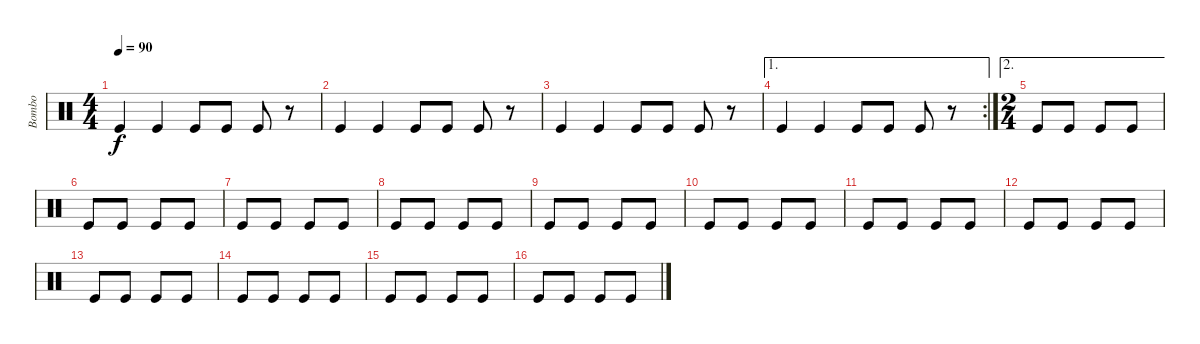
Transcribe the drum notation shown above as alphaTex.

\track ("Bombo" "Bombo") {instrument percussion}
\staff {score}
\articulation defaults
\ts (4 4)
\tempo 90
\clef neutral
\ks c "Kick (hit)".4{dy f} "Kick (hit)".4 "Kick (hit)".8 "Kick (hit)".8 "Kick (hit)".8
r.8 |
"Kick (hit)".4 "Kick (hit)".4 "Kick (hit)".8 "Kick (hit)".8 "Kick (hit)".8 r.8 |
"Kick (hit)".4 "Kick (hit)".4 "Kick (hit)".8 "Kick (hit)".8 "Kick (hit)".8 r.8 |
\ae 1
\rc 2 "Kick (hit)".4 "Kick (hit)".4 "Kick (hit)".8 "Kick (hit)".8 "Kick (hit)".8
r.8 |
\ae 2
\ts (2 4)
"Kick (hit)".8 "Kick (hit)".8 "Kick (hit)".8 "Kick (hit)".8 |
"Kick (hit)".8 "Kick (hit)".8 "Kick (hit)".8 "Kick (hit)".8 |
"Kick (hit)".8 "Kick (hit)".8 "Kick (hit)".8 "Kick (hit)".8 |
"Kick (hit)".8 "Kick (hit)".8 "Kick (hit)".8 "Kick (hit)".8 |
"Kick (hit)".8 "Kick (hit)".8 "Kick (hit)".8 "Kick (hit)".8 |
"Kick (hit)".8 "Kick (hit)".8 "Kick (hit)".8 "Kick (hit)".8 |
"Kick (hit)".8 "Kick (hit)".8 "Kick (hit)".8 "Kick (hit)".8 |
"Kick (hit)".8 "Kick (hit)".8 "Kick (hit)".8 "Kick (hit)".8 |
"Kick (hit)".8 "Kick (hit)".8 "Kick (hit)".8 "Kick (hit)".8 |
"Kick (hit)".8 "Kick (hit)".8 "Kick (hit)".8 "Kick (hit)".8 |
"Kick (hit)".8 "Kick (hit)".8 "Kick (hit)".8 "Kick (hit)".8 |
"Kick (hit)".8 "Kick (hit)".8 "Kick (hit)".8 "Kick (hit)".8
